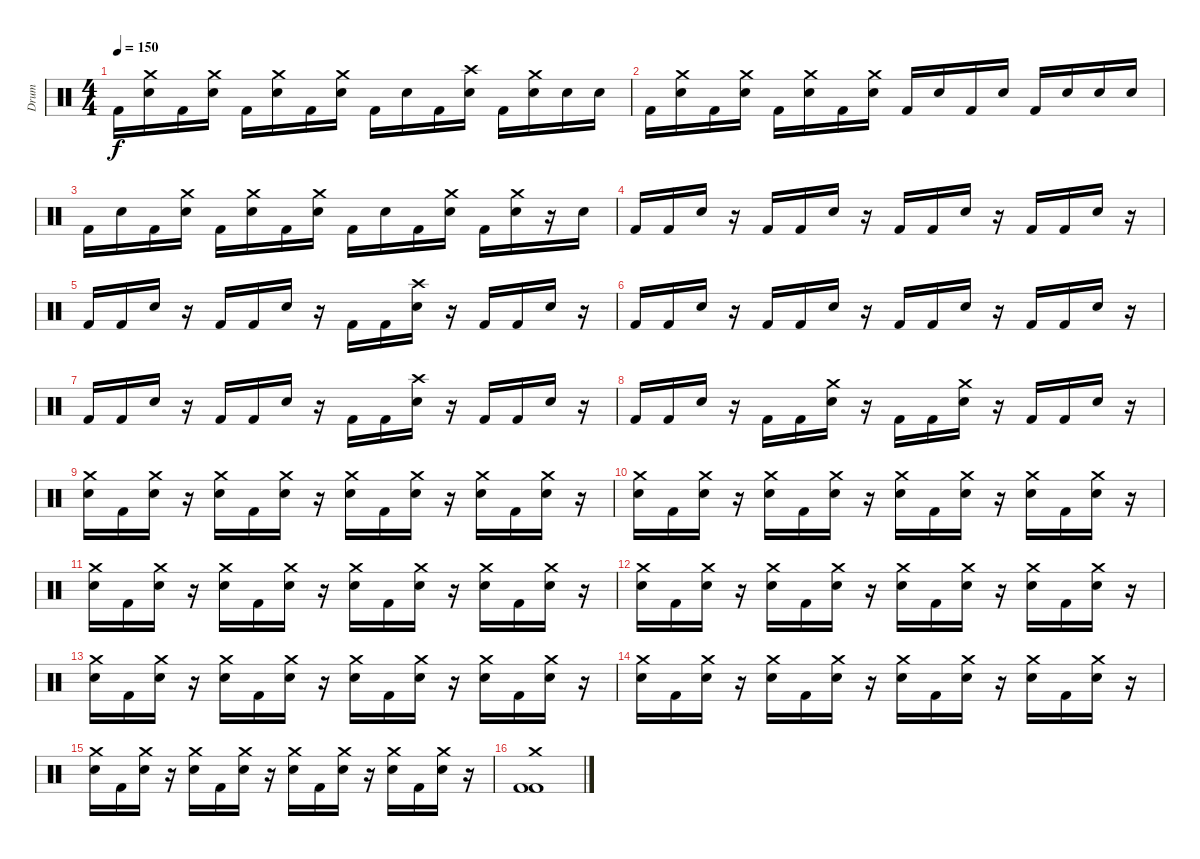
\track ("Drum" "Drum") {instrument percussion}
\staff {score}
\articulation defaults
\ts (4 4)
\tempo 150
\clef neutral
\ks c "Kick (hit) 2".16{dy f}
("Crash medium (hit)" "Electric Snare (hit)").16 "Kick (hit) 2".16 ("Crash medium (hit)" "Electric Snare (hit)").16 "Kick (hit) 2".16 ("Crash medium (hit)" "Electric Snare (hit)").16 "Kick (hit) 2".16 ("Crash medium (hit)" "Electric Snare (hit)").16 "Kick (hit) 2".16 "Electric Snare (hit)".16 "Kick (hit) 2".16 ("Crash high (hit)" "Electric Snare (hit)").16 "Kick (hit) 2".16 ("Crash medium (hit)" "Electric Snare (hit)").16 "Electric Snare (hit)".16 "Electric Snare (hit)".16 |
"Kick (hit) 2".16 ("Crash medium (hit)" "Electric Snare (hit)").16 "Kick (hit) 2".16 ("Crash medium (hit)" "Electric Snare (hit)").16 "Kick (hit) 2".16 ("Crash medium (hit)" "Electric Snare (hit)").16 "Kick (hit) 2".16 ("Crash medium (hit)" "Electric Snare (hit)").16 "Kick (hit) 2".16 "Electric Snare (hit)".16 "Kick (hit) 2".16 "Electric Snare (hit)".16 "Kick (hit) 2".16 "Electric Snare (hit)".16 "Electric Snare (hit)".16 "Electric Snare (hit)".16 |
"Kick (hit) 2".16 "Electric Snare (hit)".16 "Kick (hit) 2".16 ("Crash medium (hit)" "Electric Snare (hit)").16 "Kick (hit) 2".16 ("Crash medium (hit)" "Electric Snare (hit)").16 "Kick (hit) 2".16 ("Crash medium (hit)" "Electric Snare (hit)").16 "Kick (hit) 2".16 "Electric Snare (hit)".16 "Kick (hit) 2".16 ("Crash medium (hit)" "Electric Snare (hit)").16 "Kick (hit) 2".16 ("Crash medium (hit)" "Electric Snare (hit)").16 r.16 "Electric Snare (hit)".16 |
"Kick (hit) 2".16 "Kick (hit) 2".16 "Snare (hit) 2".16 r.16 "Kick (hit) 2".16 "Kick (hit) 2".16 "Snare (hit) 2".16 r.16 "Kick (hit) 2".16 "Kick (hit) 2".16 "Snare (hit) 2".16 r.16 "Kick (hit) 2".16 "Kick (hit) 2".16 "Snare (hit) 2".16 r.16 |
"Kick (hit) 2".16 "Kick (hit) 2".16 "Snare (hit) 2".16 r.16 "Kick (hit) 2".16 "Kick (hit) 2".16 "Snare (hit) 2".16 r.16 "Kick (hit) 2".16 "Kick (hit) 2".16 ("Electric Snare (hit)" "Crash high (hit)").16 r.16 "Kick (hit) 2".16 "Kick (hit) 2".16 "Snare (hit) 2".16 r.16 |
"Kick (hit) 2".16 "Kick (hit) 2".16 "Snare (hit) 2".16 r.16 "Kick (hit) 2".16 "Kick (hit) 2".16 "Snare (hit) 2".16 r.16 "Kick (hit) 2".16 "Kick (hit) 2".16 "Snare (hit) 2".16 r.16 "Kick (hit) 2".16 "Kick (hit) 2".16 "Snare (hit) 2".16 r.16 |
"Kick (hit) 2".16 "Kick (hit) 2".16 "Snare (hit) 2".16 r.16 "Kick (hit) 2".16 "Kick (hit) 2".16 "Snare (hit) 2".16 r.16 "Kick (hit) 2".16 "Kick (hit) 2".16 ("Electric Snare (hit)" "Crash high (hit)").16 r.16 "Kick (hit) 2".16 "Kick (hit) 2".16 "Snare (hit) 2".16 r.16 |
"Kick (hit) 2".16 "Kick (hit) 2".16 "Snare (hit) 2".16 r.16 "Kick (hit) 2".16 "Kick (hit) 2".16 ("Electric Snare (hit)" "Crash medium (hit)").16 r.16 "Kick (hit) 2".16 "Kick (hit) 2".16 ("Electric Snare (hit)" "Crash medium (hit)").16 r.16 "Kick (hit) 2".16 "Kick (hit) 2".16 "Snare (hit) 2".16 r.16 |
("Electric Snare (hit)" "Crash medium (hit)").16 "Kick (hit) 2".16 ("Electric Snare (hit)" "Crash medium (hit)").16 r.16 ("Electric Snare (hit)" "Crash medium (hit)").16 "Kick (hit) 2".16 ("Electric Snare (hit)" "Crash medium (hit)").16 r.16 ("Electric Snare (hit)" "Crash medium (hit)").16 "Kick (hit) 2".16 ("Electric Snare (hit)" "Crash medium (hit)").16 r.16 ("Electric Snare (hit)" "Crash medium (hit)").16 "Kick (hit) 2".16 ("Electric Snare (hit)" "Crash medium (hit)").16 r.16 |
("Electric Snare (hit)" "Crash medium (hit)").16 "Kick (hit) 2".16 ("Electric Snare (hit)" "Crash medium (hit)").16 r.16 ("Electric Snare (hit)" "Crash medium (hit)").16 "Kick (hit) 2".16 ("Electric Snare (hit)" "Crash medium (hit)").16 r.16 ("Electric Snare (hit)" "Crash medium (hit)").16 "Kick (hit) 2".16 ("Electric Snare (hit)" "Crash medium (hit)").16 r.16 ("Electric Snare (hit)" "Crash medium (hit)").16 "Kick (hit) 2".16 ("Electric Snare (hit)" "Crash medium (hit)").16 r.16 |
("Electric Snare (hit)" "Crash medium (hit)").16 "Kick (hit) 2".16 ("Electric Snare (hit)" "Crash medium (hit)").16 r.16 ("Electric Snare (hit)" "Crash medium (hit)").16 "Kick (hit) 2".16 ("Electric Snare (hit)" "Crash medium (hit)").16 r.16 ("Electric Snare (hit)" "Crash medium (hit)").16 "Kick (hit) 2".16 ("Electric Snare (hit)" "Crash medium (hit)").16 r.16 ("Electric Snare (hit)" "Crash medium (hit)").16 "Kick (hit) 2".16 ("Electric Snare (hit)" "Crash medium (hit)").16 r.16 |
("Electric Snare (hit)" "Crash medium (hit)").16 "Kick (hit) 2".16 ("Electric Snare (hit)" "Crash medium (hit)").16 r.16 ("Electric Snare (hit)" "Crash medium (hit)").16 "Kick (hit) 2".16 ("Electric Snare (hit)" "Crash medium (hit)").16 r.16 ("Electric Snare (hit)" "Crash medium (hit)").16 "Kick (hit) 2".16 ("Electric Snare (hit)" "Crash medium (hit)").16 r.16 ("Electric Snare (hit)" "Crash medium (hit)").16 "Kick (hit) 2".16 ("Electric Snare (hit)" "Crash medium (hit)").16 r.16 |
("Electric Snare (hit)" "Crash medium (hit)").16 "Kick (hit) 2".16 ("Electric Snare (hit)" "Crash medium (hit)").16 r.16 ("Electric Snare (hit)" "Crash medium (hit)").16 "Kick (hit) 2".16 ("Electric Snare (hit)" "Crash medium (hit)").16 r.16 ("Electric Snare (hit)" "Crash medium (hit)").16 "Kick (hit) 2".16 ("Electric Snare (hit)" "Crash medium (hit)").16 r.16 ("Electric Snare (hit)" "Crash medium (hit)").16 "Kick (hit) 2".16 ("Electric Snare (hit)" "Crash medium (hit)").16 r.16 |
("Electric Snare (hit)" "Crash medium (hit)").16 "Kick (hit) 2".16 ("Electric Snare (hit)" "Crash medium (hit)").16 r.16 ("Electric Snare (hit)" "Crash medium (hit)").16 "Kick (hit) 2".16 ("Electric Snare (hit)" "Crash medium (hit)").16 r.16 ("Electric Snare (hit)" "Crash medium (hit)").16 "Kick (hit) 2".16 ("Electric Snare (hit)" "Crash medium (hit)").16 r.16 ("Electric Snare (hit)" "Crash medium (hit)").16 "Kick (hit) 2".16 ("Electric Snare (hit)" "Crash medium (hit)").16 r.16 |
("Electric Snare (hit)" "Crash medium (hit)").16 "Kick (hit) 2".16 ("Electric Snare (hit)" "Crash medium (hit)").16 r.16 ("Electric Snare (hit)" "Crash medium (hit)").16 "Kick (hit) 2".16 ("Electric Snare (hit)" "Crash medium (hit)").16 r.16 ("Electric Snare (hit)" "Crash medium (hit)").16 "Kick (hit) 2".16 ("Electric Snare (hit)" "Crash medium (hit)").16 r.16 ("Electric Snare (hit)" "Crash medium (hit)").16 "Kick (hit) 2".16 ("Electric Snare (hit)" "Crash medium (hit)").16 r.16 |
("Crash medium (hit)" "Kick (hit) 2" "Kick (hit) 2").1
